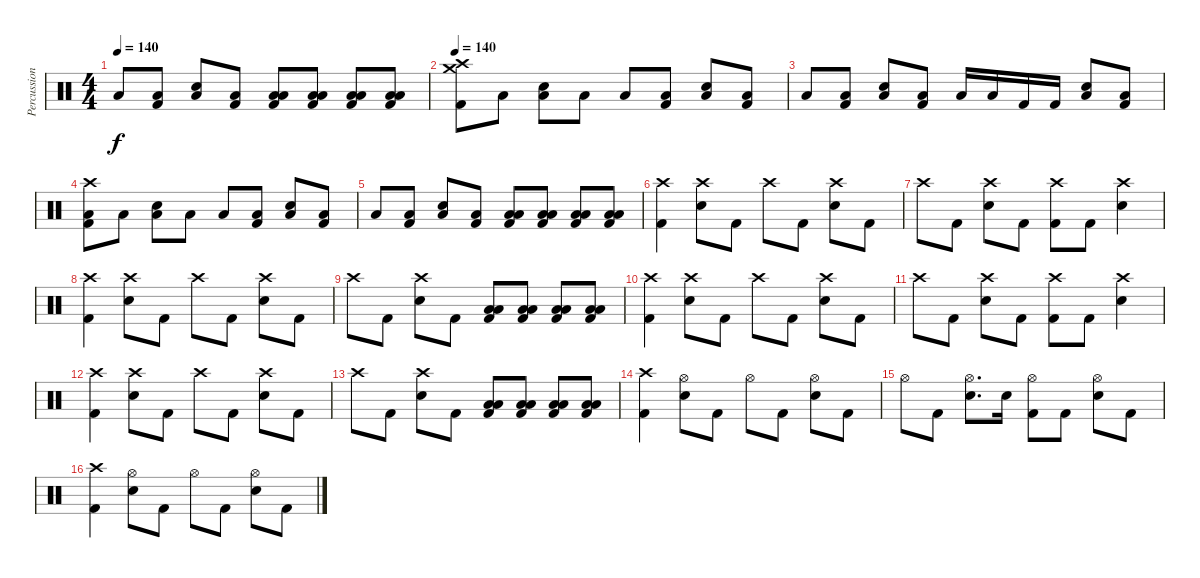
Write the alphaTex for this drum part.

\track ("Percussion" "Percussion") {instrument percussion}
\staff {score}
\articulation defaults
\ts (4 4)
\tempo 140
\clef neutral
\ks c "Low Floor Tom (hit)".8{dy f}
("Low Floor Tom (hit)" "Kick (hit) 2").8 ("Low Floor Tom (hit)" "Electric Snare (hit)").8 ("Low Floor Tom (hit)" "Kick (hit) 2").8 ("Low Tom (hit)" "Low Floor Tom (hit)" "Kick (hit) 2").8 ("Low Tom (hit)" "Low Floor Tom (hit)" "Kick (hit) 2").8 ("Low Tom (hit)" "Low Floor Tom (hit)" "Kick (hit) 2").8 ("Low Tom (hit)" "Low Floor Tom (hit)" "Kick (hit) 2").8 |
\tempo 140
("Crash high (hit)" "Crash medium (hit)" "Kick (hit) 2").8 "Low Floor Tom (hit)".8 ("Low Floor Tom (hit)" "Electric Snare (hit)").8 "Low Floor Tom (hit)".8 "Low Floor Tom (hit)".8 ("Low Floor Tom (hit)" "Kick (hit) 2").8 ("Low Floor Tom (hit)" "Electric Snare (hit)").8 ("Low Floor Tom (hit)" "Kick (hit) 2").8 |
"Low Floor Tom (hit)".8 ("Low Floor Tom (hit)" "Kick (hit) 2").8 ("Low Floor Tom (hit)" "Electric Snare (hit)").8 ("Low Floor Tom (hit)" "Kick (hit) 2").8 "Low Tom (hit)".16 "Low Tom (hit)".16 "Kick (hit) 2".16 "Kick (hit) 2".16 ("Low Floor Tom (hit)" "Electric Snare (hit)").8 ("Low Floor Tom (hit)" "Kick (hit) 2").8 |
("Crash high (hit)" "Low Floor Tom (hit)" "Kick (hit) 2").8 "Low Floor Tom (hit)".8 ("Low Floor Tom (hit)" "Electric Snare (hit)").8 "Low Floor Tom (hit)".8 "Low Floor Tom (hit)".8 ("Low Floor Tom (hit)" "Kick (hit) 2").8 ("Low Floor Tom (hit)" "Electric Snare (hit)").8 ("Low Floor Tom (hit)" "Kick (hit) 2").8 |
"Low Floor Tom (hit)".8 ("Low Floor Tom (hit)" "Kick (hit) 2").8 ("Low Floor Tom (hit)" "Electric Snare (hit)").8 ("Low Floor Tom (hit)" "Kick (hit) 2").8 ("Low Tom (hit)" "Low Floor Tom (hit)" "Kick (hit) 2").8 ("Low Tom (hit)" "Low Floor Tom (hit)" "Kick (hit) 2").8 ("Low Tom (hit)" "Low Floor Tom (hit)" "Kick (hit) 2").8 ("Low Tom (hit)" "Low Floor Tom (hit)" "Kick (hit) 2").8 |
("Crash high (hit)" "Kick (hit) 2").4 ("Crash high (hit)" "Electric Snare (hit)").8 "Kick (hit) 2".8 "Crash high (hit)".8 "Kick (hit) 2".8 ("Crash high (hit)" "Electric Snare (hit)").8 "Kick (hit) 2".8 |
"Crash high (hit)".8 "Kick (hit) 2".8 ("Crash high (hit)" "Electric Snare (hit)").8 "Kick (hit) 2".8 ("Crash high (hit)" "Kick (hit) 2").8 "Kick (hit) 2".8 ("Crash high (hit)" "Electric Snare (hit)").4 |
("Crash high (hit)" "Kick (hit) 2").4 ("Crash high (hit)" "Electric Snare (hit)").8 "Kick (hit) 2".8 "Crash high (hit)".8 "Kick (hit) 2".8 ("Crash high (hit)" "Electric Snare (hit)").8 "Kick (hit) 2".8 |
"Crash high (hit)".8 "Kick (hit) 2".8 ("Crash high (hit)" "Electric Snare (hit)").8 "Kick (hit) 2".8 ("Low Tom (hit)" "Low Floor Tom (hit)" "Kick (hit) 2").8 ("Low Tom (hit)" "Low Floor Tom (hit)" "Kick (hit) 2").8 ("Low Tom (hit)" "Low Floor Tom (hit)" "Kick (hit) 2").8 ("Low Tom (hit)" "Low Floor Tom (hit)" "Kick (hit) 2").8 |
("Crash high (hit)" "Kick (hit) 2").4 ("Crash high (hit)" "Electric Snare (hit)").8 "Kick (hit) 2".8 "Crash high (hit)".8 "Kick (hit) 2".8 ("Crash high (hit)" "Electric Snare (hit)").8 "Kick (hit) 2".8 |
"Crash high (hit)".8 "Kick (hit) 2".8 ("Crash high (hit)" "Electric Snare (hit)").8 "Kick (hit) 2".8 ("Crash high (hit)" "Kick (hit) 2").8 "Kick (hit) 2".8 ("Crash high (hit)" "Electric Snare (hit)").4 |
("Crash high (hit)" "Kick (hit) 2").4 ("Crash high (hit)" "Electric Snare (hit)").8 "Kick (hit) 2".8 "Crash high (hit)".8 "Kick (hit) 2".8 ("Crash high (hit)" "Electric Snare (hit)").8 "Kick (hit) 2".8 |
"Crash high (hit)".8 "Kick (hit) 2".8 ("Crash high (hit)" "Electric Snare (hit)").8 "Kick (hit) 2".8 ("Low Tom (hit)" "Low Floor Tom (hit)" "Kick (hit) 2").8 ("Low Tom (hit)" "Low Floor Tom (hit)" "Kick (hit) 2").8 ("Low Tom (hit)" "Low Floor Tom (hit)" "Kick (hit) 2").8 ("Low Tom (hit)" "Low Floor Tom (hit)" "Kick (hit) 2").8 |
("Crash high (hit)" "Kick (hit) 2").4 ("Hi-Hat (open)" "Electric Snare (hit)").8 "Kick (hit) 2".8 "Hi-Hat (open)".8 "Kick (hit) 2".8 ("Hi-Hat (open)" "Electric Snare (hit)").8 "Kick (hit) 2".8 |
"Hi-Hat (open)".8 "Kick (hit) 2".8 ("Hi-Hat (open)" "Electric Snare (hit)").8{d} "Electric Snare (hit)".16 ("Hi-Hat (open)" "Kick (hit) 2").8 "Kick (hit) 2".8 ("Hi-Hat (open)" "Electric Snare (hit)").8 "Kick (hit) 2".8 |
("Crash high (hit)" "Kick (hit) 2").4 ("Hi-Hat (open)" "Electric Snare (hit)").8 "Kick (hit) 2".8 "Hi-Hat (open)".8 "Kick (hit) 2".8 ("Hi-Hat (open)" "Electric Snare (hit)").8 "Kick (hit) 2".8
